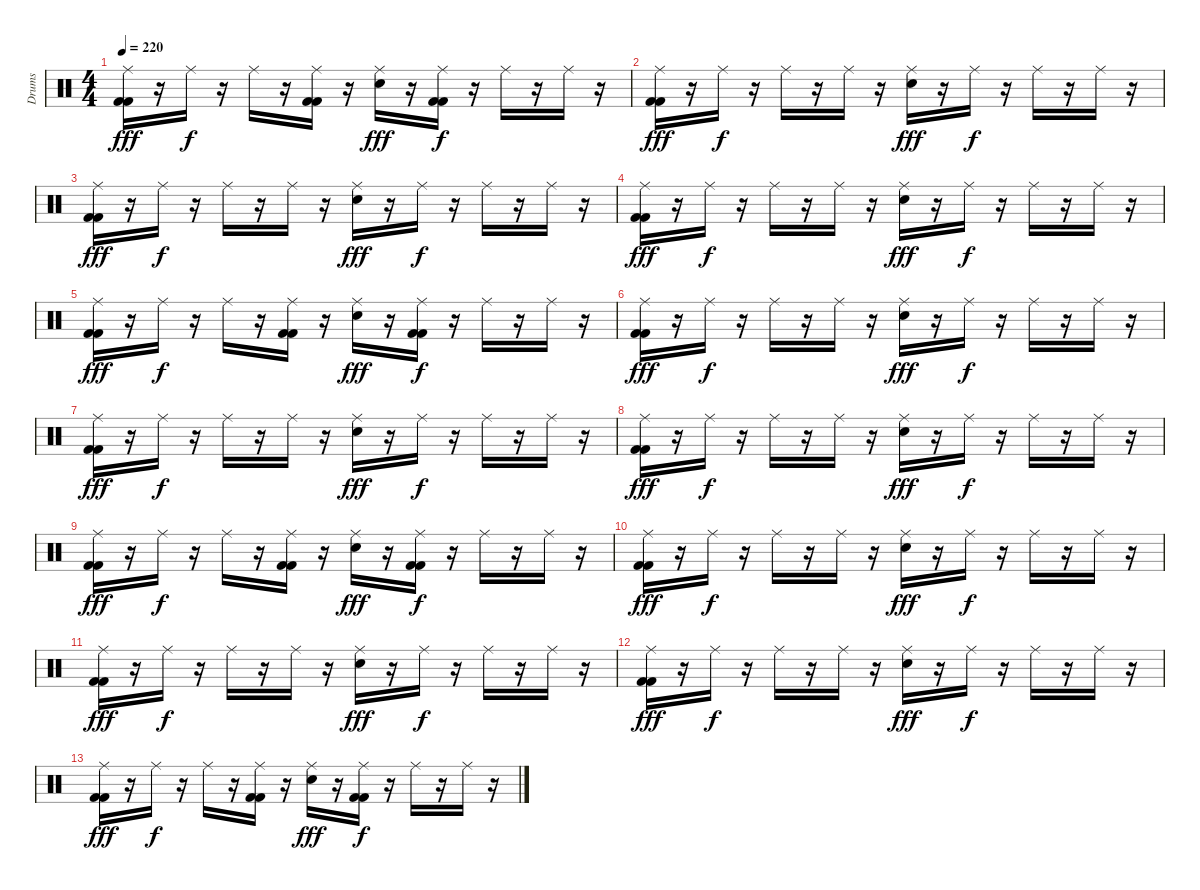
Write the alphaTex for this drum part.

\track ("Drums" "Drums") {instrument percussion}
\staff {score}
\articulation defaults
\ts (4 4)
\tempo 220
\clef neutral
\ks c
("Ride (middle)" "Kick (hit) 2" "Kick (hit) 2").16{dy fff} r.16 "Ride (middle)".16{dy f} r.16 "Ride (middle)".16 r.16 ("Ride (middle)" "Kick (hit) 2" "Kick (hit) 2").16 r.16 ("Ride (middle)" "Electric Snare (hit)").16{dy fff} r.16 ("Ride (middle)" "Kick (hit) 2" "Kick (hit) 2").16{dy f} r.16 "Ride (middle)".16 r.16 "Ride (middle)".16 r.16 |
("Ride (middle)" "Kick (hit) 2" "Kick (hit) 2").16{dy fff} r.16 "Ride (middle)".16{dy f} r.16 "Ride (middle)".16 r.16 "Ride (middle)".16 r.16 ("Ride (middle)" "Electric Snare (hit)").16{dy fff} r.16 "Ride (middle)".16{dy f} r.16 "Ride (middle)".16 r.16 "Ride (middle)".16 r.16 |
("Ride (middle)" "Kick (hit) 2" "Kick (hit) 2").16{dy fff} r.16 "Ride (middle)".16{dy f} r.16 "Ride (middle)".16 r.16 "Ride (middle)".16 r.16 ("Ride (middle)" "Electric Snare (hit)").16{dy fff} r.16 "Ride (middle)".16{dy f} r.16 "Ride (middle)".16 r.16 "Ride (middle)".16 r.16 |
("Ride (middle)" "Kick (hit) 2" "Kick (hit) 2").16{dy fff} r.16 "Ride (middle)".16{dy f} r.16 "Ride (middle)".16 r.16 "Ride (middle)".16 r.16 ("Ride (middle)" "Electric Snare (hit)").16{dy fff} r.16 "Ride (middle)".16{dy f} r.16 "Ride (middle)".16 r.16 "Ride (middle)".16 r.16 |
("Ride (middle)" "Kick (hit) 2" "Kick (hit) 2").16{dy fff} r.16 "Ride (middle)".16{dy f} r.16 "Ride (middle)".16 r.16 ("Ride (middle)" "Kick (hit) 2" "Kick (hit) 2").16 r.16 ("Ride (middle)" "Electric Snare (hit)").16{dy fff} r.16 ("Ride (middle)" "Kick (hit) 2" "Kick (hit) 2").16{dy f} r.16 "Ride (middle)".16 r.16 "Ride (middle)".16 r.16 |
("Ride (middle)" "Kick (hit) 2" "Kick (hit) 2").16{dy fff} r.16 "Ride (middle)".16{dy f} r.16 "Ride (middle)".16 r.16 "Ride (middle)".16 r.16 ("Ride (middle)" "Electric Snare (hit)").16{dy fff} r.16 "Ride (middle)".16{dy f} r.16 "Ride (middle)".16 r.16 "Ride (middle)".16 r.16 |
("Ride (middle)" "Kick (hit) 2" "Kick (hit) 2").16{dy fff} r.16 "Ride (middle)".16{dy f} r.16 "Ride (middle)".16 r.16 "Ride (middle)".16 r.16 ("Ride (middle)" "Electric Snare (hit)").16{dy fff} r.16 "Ride (middle)".16{dy f} r.16 "Ride (middle)".16 r.16 "Ride (middle)".16 r.16 |
("Ride (middle)" "Kick (hit) 2" "Kick (hit) 2").16{dy fff} r.16 "Ride (middle)".16{dy f} r.16 "Ride (middle)".16 r.16 "Ride (middle)".16 r.16 ("Ride (middle)" "Electric Snare (hit)").16{dy fff} r.16 "Ride (middle)".16{dy f} r.16 "Ride (middle)".16 r.16 "Ride (middle)".16 r.16 |
("Ride (middle)" "Kick (hit) 2" "Kick (hit) 2").16{dy fff} r.16 "Ride (middle)".16{dy f} r.16 "Ride (middle)".16 r.16 ("Ride (middle)" "Kick (hit) 2" "Kick (hit) 2").16 r.16 ("Ride (middle)" "Electric Snare (hit)").16{dy fff} r.16 ("Ride (middle)" "Kick (hit) 2" "Kick (hit) 2").16{dy f} r.16 "Ride (middle)".16 r.16 "Ride (middle)".16 r.16 |
("Ride (middle)" "Kick (hit) 2" "Kick (hit) 2").16{dy fff} r.16 "Ride (middle)".16{dy f} r.16 "Ride (middle)".16 r.16 "Ride (middle)".16 r.16 ("Ride (middle)" "Electric Snare (hit)").16{dy fff} r.16 "Ride (middle)".16{dy f} r.16 "Ride (middle)".16 r.16 "Ride (middle)".16 r.16 |
("Ride (middle)" "Kick (hit) 2" "Kick (hit) 2").16{dy fff} r.16 "Ride (middle)".16{dy f} r.16 "Ride (middle)".16 r.16 "Ride (middle)".16 r.16 ("Ride (middle)" "Electric Snare (hit)").16{dy fff} r.16 "Ride (middle)".16{dy f} r.16 "Ride (middle)".16 r.16 "Ride (middle)".16 r.16 |
("Ride (middle)" "Kick (hit) 2" "Kick (hit) 2").16{dy fff} r.16 "Ride (middle)".16{dy f} r.16 "Ride (middle)".16 r.16 "Ride (middle)".16 r.16 ("Ride (middle)" "Electric Snare (hit)").16{dy fff} r.16 "Ride (middle)".16{dy f} r.16 "Ride (middle)".16 r.16 "Ride (middle)".16 r.16 |
("Ride (middle)" "Kick (hit) 2" "Kick (hit) 2").16{dy fff} r.16 "Ride (middle)".16{dy f} r.16 "Ride (middle)".16 r.16 ("Ride (middle)" "Kick (hit) 2" "Kick (hit) 2").16 r.16 ("Ride (middle)" "Electric Snare (hit)").16{dy fff} r.16 ("Ride (middle)" "Kick (hit) 2" "Kick (hit) 2").16{dy f} r.16 "Ride (middle)".16 r.16 "Ride (middle)".16 r.16
